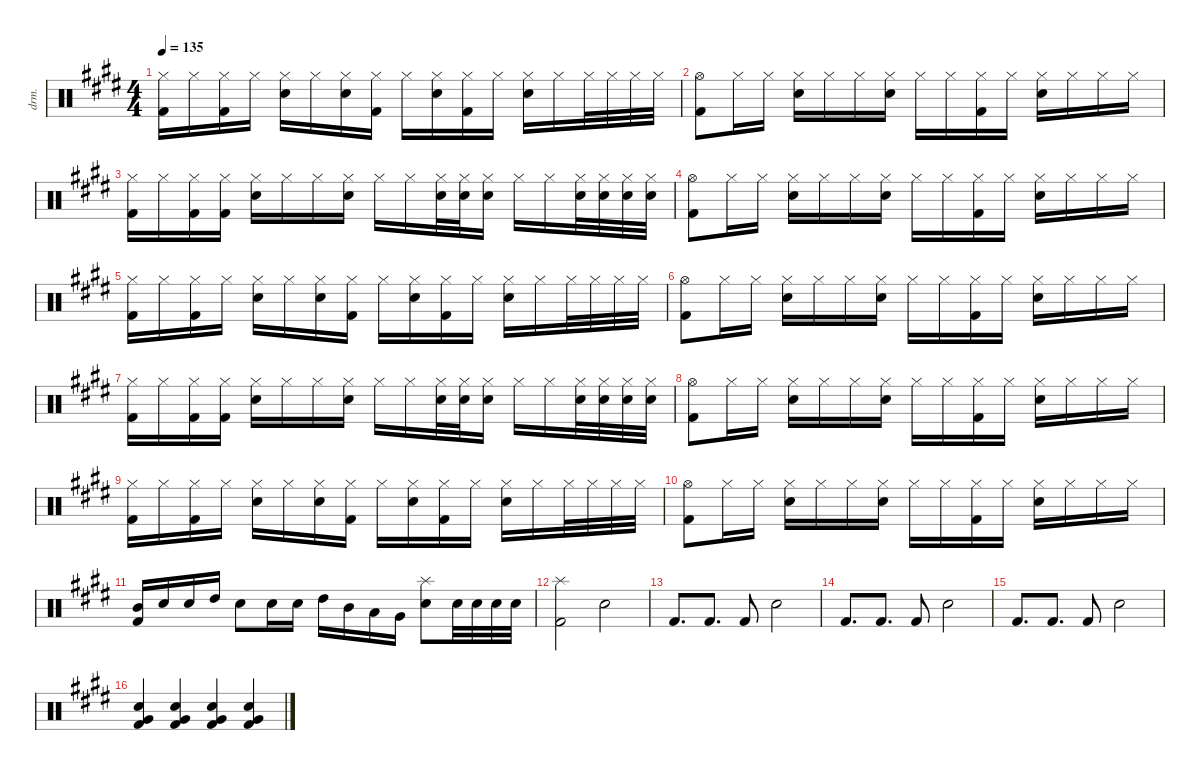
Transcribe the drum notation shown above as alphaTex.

\defaultSystemsLayout 4
\hideDynamics
\bracketExtendMode nobrackets
\track ("Drumkit" "drm.") {instrument percussion}
\staff {score}
\articulation defaults
\ts (4 4)
\tempo 135
\clef neutral
\ks e
("Kick (hit) 2"{acc forcenatural} "Hi-Hat (closed)"{acc forcenatural}).16{dy mf} "Hi-Hat (closed)"{acc forcenatural}.16 ("Hi-Hat (closed)"{acc forcenatural} "Kick (hit) 2"{acc forcenatural}).16 "Hi-Hat (closed)"{acc forcenatural}.16 ("Hi-Hat (closed)"{acc forcenatural} "Snare (hit) 2"{acc forcenatural}).16 "Hi-Hat (closed)"{acc forcenatural}.16 ("Hi-Hat (closed)"{acc forcenatural} "Snare (hit) 2"{acc forcenatural}).16 ("Hi-Hat (closed)"{acc forcenatural} "Kick (hit) 2"{acc forcenatural}).16 "Hi-Hat (closed)"{acc forcenatural}.16 ("Hi-Hat (closed)"{acc forcenatural} "Snare (hit) 2"{acc forcenatural}).16 ("Hi-Hat (closed)"{acc forcenatural} "Kick (hit) 2"{acc forcenatural}).16 "Hi-Hat (closed)"{acc forcenatural}.16 ("Hi-Hat (closed)"{acc forcenatural} "Snare (hit) 2"{acc forcenatural}).16 "Hi-Hat (closed)"{acc forcenatural}.16 "Hi-Hat (closed)"{acc forcenatural}.32 "Hi-Hat (closed)"{acc forcenatural}.32 "Hi-Hat (closed)"{acc forcenatural}.32 "Hi-Hat (closed)"{acc forcenatural}.32 |
("Kick (hit) 2"{acc forcenatural} "Hi-Hat (open)"{acc forcenatural}).8 "Hi-Hat (closed)"{acc forcenatural}.16 "Hi-Hat (closed)"{acc forcenatural}.16 ("Hi-Hat (closed)"{acc forcenatural} "Snare (hit) 2"{acc forcenatural}).16 "Hi-Hat (closed)"{acc forcenatural}.16 "Hi-Hat (closed)"{acc forcenatural}.16 ("Hi-Hat (closed)"{acc forcenatural} "Snare (hit) 2"{acc forcenatural}).16 "Hi-Hat (closed)"{acc forcenatural}.16 "Hi-Hat (closed)"{acc forcenatural}.16 ("Hi-Hat (closed)"{acc forcenatural} "Kick (hit) 2"{acc forcenatural}).16 "Hi-Hat (closed)"{acc forcenatural}.16 ("Hi-Hat (closed)"{acc forcenatural} "Snare (hit) 2"{acc forcenatural}).16 "Hi-Hat (closed)"{acc forcenatural}.16 "Hi-Hat (closed)"{acc forcenatural}.16 "Hi-Hat (closed)"{acc forcenatural}.16 |
("Kick (hit) 2"{acc forcenatural} "Hi-Hat (closed)"{acc forcenatural}).16 "Hi-Hat (closed)"{acc forcenatural}.16 ("Hi-Hat (closed)"{acc forcenatural} "Kick (hit) 2"{acc forcenatural}).16 ("Hi-Hat (closed)"{acc forcenatural} "Kick (hit) 2"{acc forcenatural}).16 ("Hi-Hat (closed)"{acc forcenatural} "Snare (hit) 2"{acc forcenatural}).16 "Hi-Hat (closed)"{acc forcenatural}.16 "Hi-Hat (closed)"{acc forcenatural}.16 ("Hi-Hat (closed)"{acc forcenatural} "Snare (hit) 2"{acc forcenatural}).16 "Hi-Hat (closed)"{acc forcenatural}.16 "Hi-Hat (closed)"{acc forcenatural}.16 ("Hi-Hat (closed)"{acc forcenatural} "Snare (hit) 2"{acc forcenatural}).32 ("Hi-Hat (closed)"{acc forcenatural} "Snare (hit) 2"{acc forcenatural}).32 ("Hi-Hat (closed)"{acc forcenatural} "Snare (hit) 2"{acc forcenatural}).16 "Hi-Hat (closed)"{acc forcenatural}.16 "Hi-Hat (closed)"{acc forcenatural}.16 ("Hi-Hat (closed)"{acc forcenatural} "Snare (hit) 2"{acc forcenatural}).32 ("Hi-Hat (closed)"{acc forcenatural} "Snare (hit) 2"{acc forcenatural}).32 ("Hi-Hat (closed)"{acc forcenatural} "Snare (hit) 2"{acc forcenatural}).32 ("Hi-Hat (closed)"{acc forcenatural} "Snare (hit) 2"{acc forcenatural}).32 |
("Kick (hit) 2"{acc forcenatural} "Hi-Hat (open)"{acc forcenatural}).8 "Hi-Hat (closed)"{acc forcenatural}.16 "Hi-Hat (closed)"{acc forcenatural}.16 ("Hi-Hat (closed)"{acc forcenatural} "Snare (hit) 2"{acc forcenatural}).16 "Hi-Hat (closed)"{acc forcenatural}.16 "Hi-Hat (closed)"{acc forcenatural}.16 ("Hi-Hat (closed)"{acc forcenatural} "Snare (hit) 2"{acc forcenatural}).16 "Hi-Hat (closed)"{acc forcenatural}.16 "Hi-Hat (closed)"{acc forcenatural}.16 ("Hi-Hat (closed)"{acc forcenatural} "Kick (hit) 2"{acc forcenatural}).16 "Hi-Hat (closed)"{acc forcenatural}.16 ("Hi-Hat (closed)"{acc forcenatural} "Snare (hit) 2"{acc forcenatural}).16 "Hi-Hat (closed)"{acc forcenatural}.16 "Hi-Hat (closed)"{acc forcenatural}.16 "Hi-Hat (closed)"{acc forcenatural}.16 |
("Kick (hit) 2"{acc forcenatural} "Hi-Hat (closed)"{acc forcenatural}).16 "Hi-Hat (closed)"{acc forcenatural}.16 ("Hi-Hat (closed)"{acc forcenatural} "Kick (hit) 2"{acc forcenatural}).16 "Hi-Hat (closed)"{acc forcenatural}.16 ("Hi-Hat (closed)"{acc forcenatural} "Snare (hit) 2"{acc forcenatural}).16 "Hi-Hat (closed)"{acc forcenatural}.16 ("Hi-Hat (closed)"{acc forcenatural} "Snare (hit) 2"{acc forcenatural}).16 ("Hi-Hat (closed)"{acc forcenatural} "Kick (hit) 2"{acc forcenatural}).16 "Hi-Hat (closed)"{acc forcenatural}.16 ("Hi-Hat (closed)"{acc forcenatural} "Snare (hit) 2"{acc forcenatural}).16 ("Hi-Hat (closed)"{acc forcenatural} "Kick (hit) 2"{acc forcenatural}).16 "Hi-Hat (closed)"{acc forcenatural}.16 ("Hi-Hat (closed)"{acc forcenatural} "Snare (hit) 2"{acc forcenatural}).16 "Hi-Hat (closed)"{acc forcenatural}.16 "Hi-Hat (closed)"{acc forcenatural}.32 "Hi-Hat (closed)"{acc forcenatural}.32 "Hi-Hat (closed)"{acc forcenatural}.32 "Hi-Hat (closed)"{acc forcenatural}.32 |
("Kick (hit) 2"{acc forcenatural} "Hi-Hat (open)"{acc forcenatural}).8 "Hi-Hat (closed)"{acc forcenatural}.16 "Hi-Hat (closed)"{acc forcenatural}.16 ("Hi-Hat (closed)"{acc forcenatural} "Snare (hit) 2"{acc forcenatural}).16 "Hi-Hat (closed)"{acc forcenatural}.16 "Hi-Hat (closed)"{acc forcenatural}.16 ("Hi-Hat (closed)"{acc forcenatural} "Snare (hit) 2"{acc forcenatural}).16 "Hi-Hat (closed)"{acc forcenatural}.16 "Hi-Hat (closed)"{acc forcenatural}.16 ("Hi-Hat (closed)"{acc forcenatural} "Kick (hit) 2"{acc forcenatural}).16 "Hi-Hat (closed)"{acc forcenatural}.16 ("Hi-Hat (closed)"{acc forcenatural} "Snare (hit) 2"{acc forcenatural}).16 "Hi-Hat (closed)"{acc forcenatural}.16 "Hi-Hat (closed)"{acc forcenatural}.16 "Hi-Hat (closed)"{acc forcenatural}.16 |
("Kick (hit) 2"{acc forcenatural} "Hi-Hat (closed)"{acc forcenatural}).16 "Hi-Hat (closed)"{acc forcenatural}.16 ("Hi-Hat (closed)"{acc forcenatural} "Kick (hit) 2"{acc forcenatural}).16 ("Hi-Hat (closed)"{acc forcenatural} "Kick (hit) 2"{acc forcenatural}).16 ("Hi-Hat (closed)"{acc forcenatural} "Snare (hit) 2"{acc forcenatural}).16 "Hi-Hat (closed)"{acc forcenatural}.16 "Hi-Hat (closed)"{acc forcenatural}.16 ("Hi-Hat (closed)"{acc forcenatural} "Snare (hit) 2"{acc forcenatural}).16 "Hi-Hat (closed)"{acc forcenatural}.16 "Hi-Hat (closed)"{acc forcenatural}.16 ("Hi-Hat (closed)"{acc forcenatural} "Snare (hit) 2"{acc forcenatural}).32 ("Hi-Hat (closed)"{acc forcenatural} "Snare (hit) 2"{acc forcenatural}).32 ("Hi-Hat (closed)"{acc forcenatural} "Snare (hit) 2"{acc forcenatural}).16 "Hi-Hat (closed)"{acc forcenatural}.16 "Hi-Hat (closed)"{acc forcenatural}.16 ("Hi-Hat (closed)"{acc forcenatural} "Snare (hit) 2"{acc forcenatural}).32 ("Hi-Hat (closed)"{acc forcenatural} "Snare (hit) 2"{acc forcenatural}).32 ("Hi-Hat (closed)"{acc forcenatural} "Snare (hit) 2"{acc forcenatural}).32 ("Hi-Hat (closed)"{acc forcenatural} "Snare (hit) 2"{acc forcenatural}).32 |
("Kick (hit) 2"{acc forcenatural} "Hi-Hat (open)"{acc forcenatural}).8 "Hi-Hat (closed)"{acc forcenatural}.16 "Hi-Hat (closed)"{acc forcenatural}.16 ("Hi-Hat (closed)"{acc forcenatural} "Snare (hit) 2"{acc forcenatural}).16 "Hi-Hat (closed)"{acc forcenatural}.16 "Hi-Hat (closed)"{acc forcenatural}.16 ("Hi-Hat (closed)"{acc forcenatural} "Snare (hit) 2"{acc forcenatural}).16 "Hi-Hat (closed)"{acc forcenatural}.16 "Hi-Hat (closed)"{acc forcenatural}.16 ("Hi-Hat (closed)"{acc forcenatural} "Kick (hit) 2"{acc forcenatural}).16 "Hi-Hat (closed)"{acc forcenatural}.16 ("Hi-Hat (closed)"{acc forcenatural} "Snare (hit) 2"{acc forcenatural}).16 "Hi-Hat (closed)"{acc forcenatural}.16 "Hi-Hat (closed)"{acc forcenatural}.16 "Hi-Hat (closed)"{acc forcenatural}.16 |
("Kick (hit) 2"{acc forcenatural} "Hi-Hat (closed)"{acc forcenatural}).16 "Hi-Hat (closed)"{acc forcenatural}.16 ("Hi-Hat (closed)"{acc forcenatural} "Kick (hit) 2"{acc forcenatural}).16 "Hi-Hat (closed)"{acc forcenatural}.16 ("Hi-Hat (closed)"{acc forcenatural} "Snare (hit) 2"{acc forcenatural}).16 "Hi-Hat (closed)"{acc forcenatural}.16 ("Hi-Hat (closed)"{acc forcenatural} "Snare (hit) 2"{acc forcenatural}).16 ("Hi-Hat (closed)"{acc forcenatural} "Kick (hit) 2"{acc forcenatural}).16 "Hi-Hat (closed)"{acc forcenatural}.16 ("Hi-Hat (closed)"{acc forcenatural} "Snare (hit) 2"{acc forcenatural}).16 ("Hi-Hat (closed)"{acc forcenatural} "Kick (hit) 2"{acc forcenatural}).16 "Hi-Hat (closed)"{acc forcenatural}.16 ("Hi-Hat (closed)"{acc forcenatural} "Snare (hit) 2"{acc forcenatural}).16 "Hi-Hat (closed)"{acc forcenatural}.16 "Hi-Hat (closed)"{acc forcenatural}.32 "Hi-Hat (closed)"{acc forcenatural}.32 "Hi-Hat (closed)"{acc forcenatural}.32 "Hi-Hat (closed)"{acc forcenatural}.32 |
("Kick (hit) 2"{acc forcenatural} "Hi-Hat (open)"{acc forcenatural}).8 "Hi-Hat (closed)"{acc forcenatural}.16 "Hi-Hat (closed)"{acc forcenatural}.16 ("Hi-Hat (closed)"{acc forcenatural} "Snare (hit) 2"{acc forcenatural}).16 "Hi-Hat (closed)"{acc forcenatural}.16 "Hi-Hat (closed)"{acc forcenatural}.16 ("Hi-Hat (closed)"{acc forcenatural} "Snare (hit) 2"{acc forcenatural}).16 "Hi-Hat (closed)"{acc forcenatural}.16 "Hi-Hat (closed)"{acc forcenatural}.16 ("Hi-Hat (closed)"{acc forcenatural} "Kick (hit) 2"{acc forcenatural}).16 "Hi-Hat (closed)"{acc forcenatural}.16 ("Hi-Hat (closed)"{acc forcenatural} "Snare (hit) 2"{acc forcenatural}).16 "Hi-Hat (closed)"{acc forcenatural}.16 "Hi-Hat (closed)"{acc forcenatural}.16 "Hi-Hat (closed)"{acc forcenatural}.16 |
("Kick (hit) 2"{acc forcenatural} "Mid Tom (hit)"{acc forcenatural}).16 "Snare (hit) 2"{acc forcenatural}.16 "Snare (hit) 2"{acc forcenatural}.16 "High Tom (hit)"{acc forcenatural}.16 "Snare (hit) 2"{acc forcenatural}.8 "Snare (hit) 2"{acc forcenatural}.16 "Snare (hit) 2"{acc forcenatural}.16 "High Tom (hit)"{acc forcenatural}.16 "Mid Tom (hit)"{acc forcenatural}.16 "Low Tom (hit)"{acc forcenatural}.16 "Very Low Tom (hit)"{acc forcenatural}.16 ("Splash (hit)"{acc forcenatural} "Snare (hit) 2"{acc forcenatural}).8 "Snare (hit) 2"{acc forcenatural}.32 "Snare (hit) 2"{acc forcenatural}.32 "Snare (hit) 2"{acc forcenatural}.32 "Snare (hit) 2"{acc forcenatural}.32 |
("Splash (hit)"{acc forcenatural} "Kick (hit) 2"{acc forcenatural}).2 "Snare (hit) 2"{acc forcenatural}.2 |
"Kick (hit) 2"{acc forcenatural}.8{d} "Kick (hit) 2"{acc forcenatural}.8{d} "Kick (hit) 2"{acc forcenatural}.8 "Snare (hit) 2"{acc forcenatural}.2 |
"Kick (hit) 2"{acc forcenatural}.8{d} "Kick (hit) 2"{acc forcenatural}.8{d} "Kick (hit) 2"{acc forcenatural}.8 "Snare (hit) 2"{acc forcenatural}.2 |
"Kick (hit) 2"{acc forcenatural}.8{d} "Kick (hit) 2"{acc forcenatural}.8{d} "Kick (hit) 2"{acc forcenatural}.8 "Snare (hit) 2"{acc forcenatural}.2 |
("Snare (hit) 2"{acc forcenatural} "Very Low Tom (hit)"{acc forcenatural} "Kick (hit) 2"{acc forcenatural}).4 ("Snare (hit) 2"{acc forcenatural} "Very Low Tom (hit)"{acc forcenatural} "Kick (hit) 2"{acc forcenatural}).4 ("Snare (hit) 2"{acc forcenatural} "Very Low Tom (hit)"{acc forcenatural} "Kick (hit) 2"{acc forcenatural}).4 ("Snare (hit) 2"{acc forcenatural} "Very Low Tom (hit)"{acc forcenatural} "Kick (hit) 2"{acc forcenatural}).4
